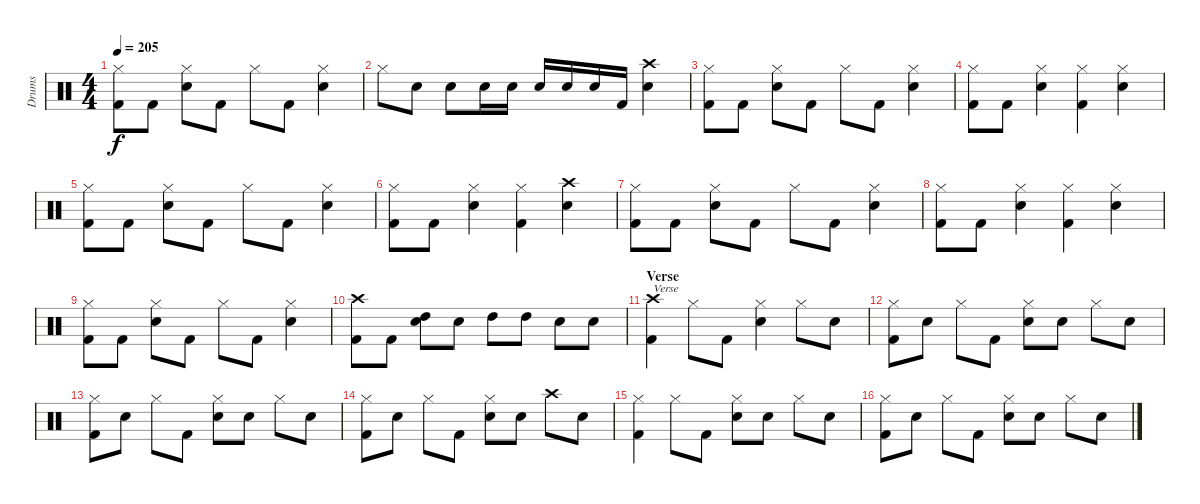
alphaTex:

\track ("Drums" "Drums") {instrument percussion}
\staff {score}
\articulation defaults
\ts (4 4)
\tempo 205
\clef neutral
\ks c
("Hi-Hat (closed)" "Kick (hit) 2").8{dy f} "Kick (hit) 2".8 ("Hi-Hat (closed)" "Electric Snare (hit)").8 "Kick (hit) 2".8 "Hi-Hat (closed)".8 "Kick (hit) 2".8 ("Hi-Hat (closed)" "Electric Snare (hit)").4 |
"Hi-Hat (closed)".8 "Electric Snare (hit)".8 "Electric Snare (hit)".8 "Electric Snare (hit)".16 "Electric Snare (hit)".16 "Electric Snare (hit)".16 "Electric Snare (hit)".16 "Electric Snare (hit)".16 "Kick (hit) 2".16 ("Crash high (hit)" "Electric Snare (hit)").4 |
("Hi-Hat (closed)" "Kick (hit) 2").8 "Kick (hit) 2".8 ("Hi-Hat (closed)" "Electric Snare (hit)").8 "Kick (hit) 2".8 "Hi-Hat (closed)".8 "Kick (hit) 2".8 ("Hi-Hat (closed)" "Electric Snare (hit)").4 |
("Hi-Hat (closed)" "Kick (hit) 2").8 "Kick (hit) 2".8 ("Hi-Hat (closed)" "Electric Snare (hit)").4 ("Hi-Hat (closed)" "Kick (hit) 2").4 ("Hi-Hat (closed)" "Electric Snare (hit)").4 |
("Hi-Hat (closed)" "Kick (hit) 2").8 "Kick (hit) 2".8 ("Hi-Hat (closed)" "Electric Snare (hit)").8 "Kick (hit) 2".8 "Hi-Hat (closed)".8 "Kick (hit) 2".8 ("Hi-Hat (closed)" "Electric Snare (hit)").4 |
("Hi-Hat (closed)" "Kick (hit) 2").8 "Kick (hit) 2".8 ("Hi-Hat (closed)" "Electric Snare (hit)").4 ("Hi-Hat (closed)" "Kick (hit) 2").4 ("Crash high (hit)" "Electric Snare (hit)").4 |
("Hi-Hat (closed)" "Kick (hit) 2").8 "Kick (hit) 2".8 ("Hi-Hat (closed)" "Electric Snare (hit)").8 "Kick (hit) 2".8 "Hi-Hat (closed)".8 "Kick (hit) 2".8 ("Hi-Hat (closed)" "Electric Snare (hit)").4 |
("Hi-Hat (closed)" "Kick (hit) 2").8 "Kick (hit) 2".8 ("Hi-Hat (closed)" "Electric Snare (hit)").4 ("Hi-Hat (closed)" "Kick (hit) 2").4 ("Hi-Hat (closed)" "Electric Snare (hit)").4 |
("Hi-Hat (closed)" "Kick (hit) 2").8 "Kick (hit) 2".8 ("Hi-Hat (closed)" "Electric Snare (hit)").8 "Kick (hit) 2".8 "Hi-Hat (closed)".8 "Kick (hit) 2".8 ("Hi-Hat (closed)" "Electric Snare (hit)").4 |
("Crash high (hit)" "Kick (hit) 2").8 "Kick (hit) 2".8 ("Electric Snare (hit)" "High Tom (hit)").8 "Electric Snare (hit)".8 "High Tom (hit)".8 "High Tom (hit)".8 "Electric Snare (hit)".8 "Electric Snare (hit)".8 |
\section ("" "Verse")
("Crash high (hit)" "Kick (hit) 2").4{txt "Verse"} "Hi-Hat (closed)".8 "Kick (hit) 2".8 ("Hi-Hat (closed)" "Electric Snare (hit)").4 "Hi-Hat (closed)".8 "Electric Snare (hit)".8 |
("Hi-Hat (closed)" "Kick (hit) 2").8 "Electric Snare (hit)".8 "Hi-Hat (closed)".8 "Kick (hit) 2".8 ("Hi-Hat (closed)" "Electric Snare (hit)").8 "Electric Snare (hit)".8 "Hi-Hat (closed)".8 "Electric Snare (hit)".8 |
("Hi-Hat (closed)" "Kick (hit) 2").8 "Electric Snare (hit)".8 "Hi-Hat (closed)".8 "Kick (hit) 2".8 ("Hi-Hat (closed)" "Electric Snare (hit)").8 "Electric Snare (hit)".8 "Hi-Hat (closed)".8 "Electric Snare (hit)".8 |
("Hi-Hat (closed)" "Kick (hit) 2").8 "Electric Snare (hit)".8 "Hi-Hat (closed)".8 "Kick (hit) 2".8 ("Hi-Hat (closed)" "Electric Snare (hit)").8 "Electric Snare (hit)".8 "Crash high (hit)".8 "Electric Snare (hit)".8 |
("Hi-Hat (closed)" "Kick (hit) 2").4 "Hi-Hat (closed)".8 "Kick (hit) 2".8 ("Hi-Hat (closed)" "Electric Snare (hit)").8 "Electric Snare (hit)".8 "Hi-Hat (closed)".8 "Electric Snare (hit)".8 |
("Hi-Hat (closed)" "Kick (hit) 2").8 "Electric Snare (hit)".8 "Hi-Hat (closed)".8 "Kick (hit) 2".8 ("Hi-Hat (closed)" "Electric Snare (hit)").8 "Electric Snare (hit)".8 "Hi-Hat (closed)".8 "Electric Snare (hit)".8
